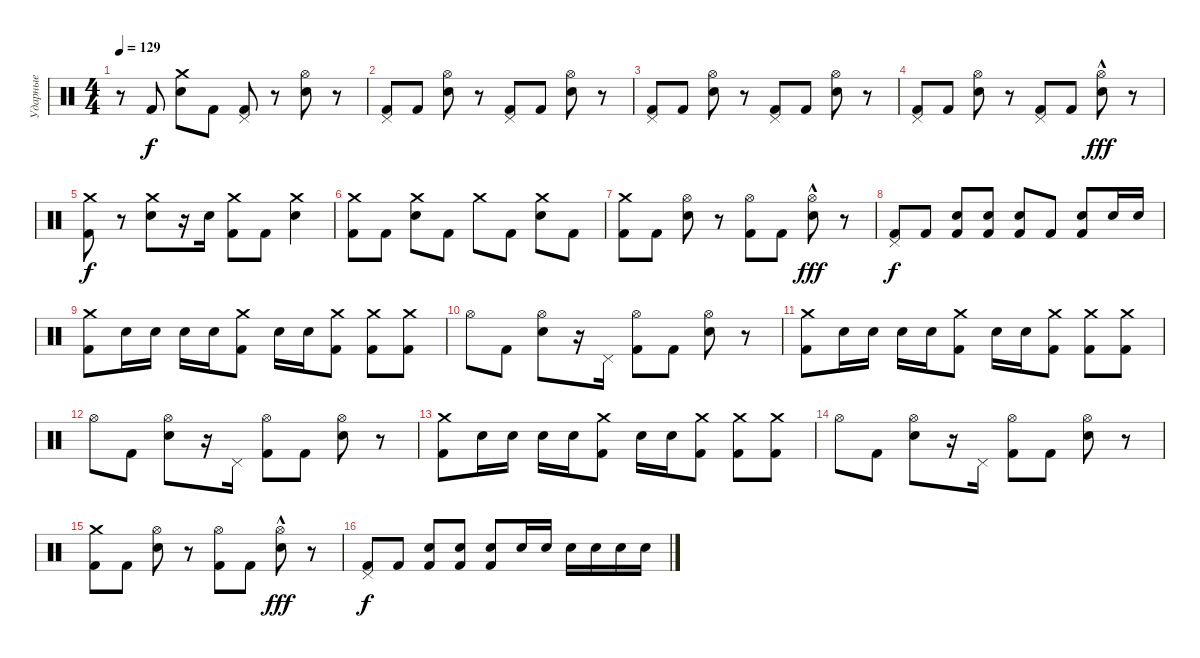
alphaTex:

\track ("Ударные" "Ударные") {instrument percussion}
\staff {score}
\articulation defaults
\ts (4 4)
\tempo 129
\clef neutral
\ks c
r.8{dy f} "Kick (hit) 2".8 ("Crash medium (hit)" "Electric Snare (hit)").8 "Kick (hit) 2".8 ("Pedal Hi-Hat (hit)" "Kick (hit) 2").8 r.8 ("Hi-Hat (open)" "Electric Snare (hit)").8 r.8 |
("Pedal Hi-Hat (hit)" "Kick (hit) 2").8 "Kick (hit) 2".8 ("Hi-Hat (open)" "Electric Snare (hit)").8 r.8 ("Pedal Hi-Hat (hit)" "Kick (hit) 2").8 "Kick (hit) 2".8 ("Hi-Hat (open)" "Electric Snare (hit)").8 r.8 |
("Pedal Hi-Hat (hit)" "Kick (hit) 2").8 "Kick (hit) 2".8 ("Hi-Hat (open)" "Electric Snare (hit)").8 r.8 ("Pedal Hi-Hat (hit)" "Kick (hit) 2").8 "Kick (hit) 2".8 ("Hi-Hat (open)" "Electric Snare (hit)").8 r.8 |
("Pedal Hi-Hat (hit)" "Kick (hit) 2").8 "Kick (hit) 2".8 ("Hi-Hat (open)" "Electric Snare (hit)").8 r.8 ("Pedal Hi-Hat (hit)" "Kick (hit) 2").8 "Kick (hit) 2".8 ("Hi-Hat (open)" "Electric Snare (hit)"{hac}).8{dy fff} r.8 |
("Crash medium (hit)" "Kick (hit) 2").8{dy f} r.8 ("Crash medium (hit)" "Electric Snare (hit)").8 r.16 "Electric Snare (hit)".16 ("Crash medium (hit)" "Kick (hit) 2").8 "Kick (hit) 2".8 ("Crash medium (hit)" "Electric Snare (hit)").4 |
("Crash medium (hit)" "Kick (hit) 2").8 "Kick (hit) 2".8 ("Crash medium (hit)" "Electric Snare (hit)").8 "Kick (hit) 2".8 "Crash medium (hit)".8 "Kick (hit) 2".8 ("Crash medium (hit)" "Electric Snare (hit)").8 "Kick (hit) 2".8 |
("Crash medium (hit)" "Kick (hit) 2").8 "Kick (hit) 2".8 ("Hi-Hat (open)" "Electric Snare (hit)").8 r.8 ("Hi-Hat (open)" "Kick (hit) 2").8 "Kick (hit) 2".8 ("Hi-Hat (open)" "Electric Snare (hit)"{hac}).8{dy fff} r.8 |
("Pedal Hi-Hat (hit)" "Kick (hit) 2").8{dy f} "Kick (hit) 2".8 ("Electric Snare (hit)" "Kick (hit) 2").8 ("Electric Snare (hit)" "Kick (hit) 2").8 ("Electric Snare (hit)" "Kick (hit) 2").8 "Kick (hit) 2".8 ("Electric Snare (hit)" "Kick (hit) 2").8 "Electric Snare (hit)".16 "Electric Snare (hit)".16 |
("Crash medium (hit)" "Kick (hit) 2").8 "Electric Snare (hit)".16 "Electric Snare (hit)".16 "Electric Snare (hit)".16 "Electric Snare (hit)".16 ("Crash medium (hit)" "Kick (hit) 2").8 "Electric Snare (hit)".16 "Electric Snare (hit)".16 ("Crash medium (hit)" "Kick (hit) 2").8 ("Crash medium (hit)" "Kick (hit) 2").8 ("Crash medium (hit)" "Kick (hit) 2").8 |
"Hi-Hat (open)".8 "Kick (hit) 2".8 ("Hi-Hat (open)" "Electric Snare (hit)").8 r.16 "Pedal Hi-Hat (hit)".16 ("Hi-Hat (open)" "Kick (hit) 2").8 "Kick (hit) 2".8 ("Hi-Hat (open)" "Electric Snare (hit)").8 r.8 |
("Crash medium (hit)" "Kick (hit) 2").8 "Electric Snare (hit)".16 "Electric Snare (hit)".16 "Electric Snare (hit)".16 "Electric Snare (hit)".16 ("Crash medium (hit)" "Kick (hit) 2").8 "Electric Snare (hit)".16 "Electric Snare (hit)".16 ("Crash medium (hit)" "Kick (hit) 2").8 ("Crash medium (hit)" "Kick (hit) 2").8 ("Crash medium (hit)" "Kick (hit) 2").8 |
"Hi-Hat (open)".8 "Kick (hit) 2".8 ("Hi-Hat (open)" "Electric Snare (hit)").8 r.16 "Pedal Hi-Hat (hit)".16 ("Hi-Hat (open)" "Kick (hit) 2").8 "Kick (hit) 2".8 ("Hi-Hat (open)" "Electric Snare (hit)").8 r.8 |
("Crash medium (hit)" "Kick (hit) 2").8 "Electric Snare (hit)".16 "Electric Snare (hit)".16 "Electric Snare (hit)".16 "Electric Snare (hit)".16 ("Crash medium (hit)" "Kick (hit) 2").8 "Electric Snare (hit)".16 "Electric Snare (hit)".16 ("Crash medium (hit)" "Kick (hit) 2").8 ("Crash medium (hit)" "Kick (hit) 2").8 ("Crash medium (hit)" "Kick (hit) 2").8 |
"Hi-Hat (open)".8 "Kick (hit) 2".8 ("Hi-Hat (open)" "Electric Snare (hit)").8 r.16 "Pedal Hi-Hat (hit)".16 ("Hi-Hat (open)" "Kick (hit) 2").8 "Kick (hit) 2".8 ("Hi-Hat (open)" "Electric Snare (hit)").8 r.8 |
("Crash medium (hit)" "Kick (hit) 2").8 "Kick (hit) 2".8 ("Hi-Hat (open)" "Electric Snare (hit)").8 r.8 ("Hi-Hat (open)" "Kick (hit) 2").8 "Kick (hit) 2".8 ("Hi-Hat (open)" "Electric Snare (hit)"{hac}).8{dy fff} r.8 |
("Pedal Hi-Hat (hit)" "Kick (hit) 2").8{dy f} "Kick (hit) 2".8 ("Electric Snare (hit)" "Kick (hit) 2").8 ("Electric Snare (hit)" "Kick (hit) 2").8 ("Electric Snare (hit)" "Kick (hit) 2").8 "Electric Snare (hit)".16 "Electric Snare (hit)".16 "Electric Snare (hit)".16 "Electric Snare (hit)".16 "Electric Snare (hit)".16 "Electric Snare (hit)".16
